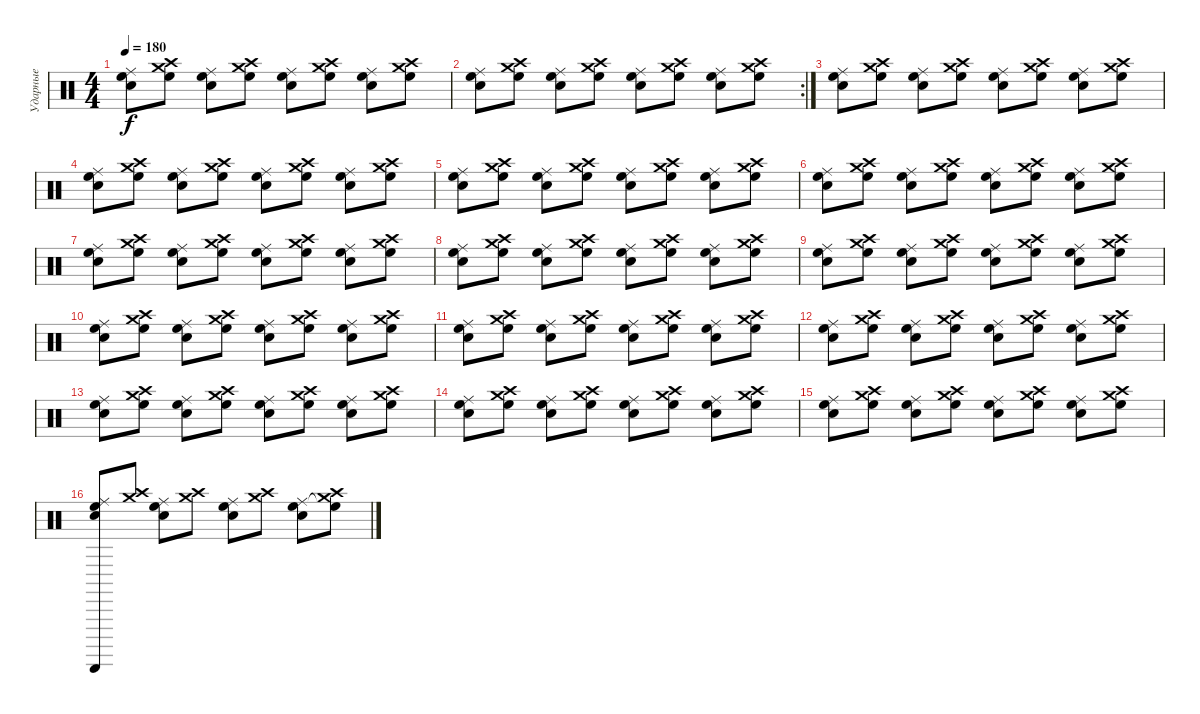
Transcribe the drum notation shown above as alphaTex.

\track ("Ударные" "Ударные") {instrument percussion}
\staff {score}
\articulation defaults
\ts (4 4)
\tempo 180
\clef neutral
\ks c
("High Floor Tom (hit)" "Ride (middle)" "Snare (hit) 2").8{dy f} ("High Floor Tom (hit)" "Crash high (hit)" "Crash medium (hit)").8 ("High Floor Tom (hit)" "Ride (middle)" "Snare (hit) 2").8 ("High Floor Tom (hit)" "Crash high (hit)" "Crash medium (hit)").8 ("High Floor Tom (hit)" "Ride (middle)" "Snare (hit) 2").8 ("High Floor Tom (hit)" "Crash high (hit)" "Crash medium (hit)").8 ("High Floor Tom (hit)" "Ride (middle)" "Snare (hit) 2").8 ("High Floor Tom (hit)" "Crash high (hit)" "Crash medium (hit)").8 |
\rc 2
("High Floor Tom (hit)" "Ride (middle)" "Snare (hit) 2").8 ("High Floor Tom (hit)" "Crash high (hit)" "Crash medium (hit)").8 ("High Floor Tom (hit)" "Ride (middle)" "Snare (hit) 2").8 ("High Floor Tom (hit)" "Crash high (hit)" "Crash medium (hit)").8 ("High Floor Tom (hit)" "Ride (middle)" "Snare (hit) 2").8 ("High Floor Tom (hit)" "Crash high (hit)" "Crash medium (hit)").8 ("High Floor Tom (hit)" "Ride (middle)" "Snare (hit) 2").8 ("High Floor Tom (hit)" "Crash high (hit)" "Crash medium (hit)").8 |
("High Floor Tom (hit)" "Ride (middle)" "Snare (hit) 2").8 ("High Floor Tom (hit)" "Crash high (hit)" "Crash medium (hit)").8 ("High Floor Tom (hit)" "Ride (middle)" "Snare (hit) 2").8 ("High Floor Tom (hit)" "Crash high (hit)" "Crash medium (hit)").8 ("High Floor Tom (hit)" "Ride (middle)" "Snare (hit) 2").8 ("High Floor Tom (hit)" "Crash high (hit)" "Crash medium (hit)").8 ("High Floor Tom (hit)" "Ride (middle)" "Snare (hit) 2").8 ("High Floor Tom (hit)" "Crash high (hit)" "Crash medium (hit)").8 |
("High Floor Tom (hit)" "Ride (middle)" "Snare (hit) 2").8 ("High Floor Tom (hit)" "Crash high (hit)" "Crash medium (hit)").8 ("High Floor Tom (hit)" "Ride (middle)" "Snare (hit) 2").8 ("High Floor Tom (hit)" "Crash high (hit)" "Crash medium (hit)").8 ("High Floor Tom (hit)" "Ride (middle)" "Snare (hit) 2").8 ("High Floor Tom (hit)" "Crash high (hit)" "Crash medium (hit)").8 ("High Floor Tom (hit)" "Ride (middle)" "Snare (hit) 2").8 ("High Floor Tom (hit)" "Crash high (hit)" "Crash medium (hit)").8 |
("High Floor Tom (hit)" "Ride (middle)" "Snare (hit) 2").8 ("High Floor Tom (hit)" "Crash high (hit)" "Crash medium (hit)").8 ("High Floor Tom (hit)" "Ride (middle)" "Snare (hit) 2").8 ("High Floor Tom (hit)" "Crash high (hit)" "Crash medium (hit)").8 ("High Floor Tom (hit)" "Ride (middle)" "Snare (hit) 2").8 ("High Floor Tom (hit)" "Crash high (hit)" "Crash medium (hit)").8 ("High Floor Tom (hit)" "Ride (middle)" "Snare (hit) 2").8 ("High Floor Tom (hit)" "Crash high (hit)" "Crash medium (hit)").8 |
("High Floor Tom (hit)" "Ride (middle)" "Snare (hit) 2").8 ("High Floor Tom (hit)" "Crash high (hit)" "Crash medium (hit)").8 ("High Floor Tom (hit)" "Ride (middle)" "Snare (hit) 2").8 ("High Floor Tom (hit)" "Crash high (hit)" "Crash medium (hit)").8 ("High Floor Tom (hit)" "Ride (middle)" "Snare (hit) 2").8 ("High Floor Tom (hit)" "Crash high (hit)" "Crash medium (hit)").8 ("High Floor Tom (hit)" "Ride (middle)" "Snare (hit) 2").8 ("High Floor Tom (hit)" "Crash high (hit)" "Crash medium (hit)").8 |
("High Floor Tom (hit)" "Ride (middle)" "Snare (hit) 2").8 ("High Floor Tom (hit)" "Crash high (hit)" "Crash medium (hit)").8 ("High Floor Tom (hit)" "Ride (middle)" "Snare (hit) 2").8 ("High Floor Tom (hit)" "Crash high (hit)" "Crash medium (hit)").8 ("High Floor Tom (hit)" "Ride (middle)" "Snare (hit) 2").8 ("High Floor Tom (hit)" "Crash high (hit)" "Crash medium (hit)").8 ("High Floor Tom (hit)" "Ride (middle)" "Snare (hit) 2").8 ("High Floor Tom (hit)" "Crash high (hit)" "Crash medium (hit)").8 |
("High Floor Tom (hit)" "Ride (middle)" "Snare (hit) 2").8 ("High Floor Tom (hit)" "Crash high (hit)" "Crash medium (hit)").8 ("High Floor Tom (hit)" "Ride (middle)" "Snare (hit) 2").8 ("High Floor Tom (hit)" "Crash high (hit)" "Crash medium (hit)").8 ("High Floor Tom (hit)" "Ride (middle)" "Snare (hit) 2").8 ("High Floor Tom (hit)" "Crash high (hit)" "Crash medium (hit)").8 ("High Floor Tom (hit)" "Ride (middle)" "Snare (hit) 2").8 ("High Floor Tom (hit)" "Crash high (hit)" "Crash medium (hit)").8 |
("High Floor Tom (hit)" "Ride (middle)" "Snare (hit) 2").8 ("High Floor Tom (hit)" "Crash high (hit)" "Crash medium (hit)").8 ("High Floor Tom (hit)" "Ride (middle)" "Snare (hit) 2").8 ("High Floor Tom (hit)" "Crash high (hit)" "Crash medium (hit)").8 ("High Floor Tom (hit)" "Ride (middle)" "Snare (hit) 2").8 ("High Floor Tom (hit)" "Crash high (hit)" "Crash medium (hit)").8 ("High Floor Tom (hit)" "Ride (middle)" "Snare (hit) 2").8 ("High Floor Tom (hit)" "Crash high (hit)" "Crash medium (hit)").8 |
("High Floor Tom (hit)" "Ride (middle)" "Snare (hit) 2").8 ("High Floor Tom (hit)" "Crash high (hit)" "Crash medium (hit)").8 ("High Floor Tom (hit)" "Ride (middle)" "Snare (hit) 2").8 ("High Floor Tom (hit)" "Crash high (hit)" "Crash medium (hit)").8 ("High Floor Tom (hit)" "Ride (middle)" "Snare (hit) 2").8 ("High Floor Tom (hit)" "Crash high (hit)" "Crash medium (hit)").8 ("High Floor Tom (hit)" "Ride (middle)" "Snare (hit) 2").8 ("High Floor Tom (hit)" "Crash high (hit)" "Crash medium (hit)").8 |
("High Floor Tom (hit)" "Ride (middle)" "Snare (hit) 2").8 ("High Floor Tom (hit)" "Crash high (hit)" "Crash medium (hit)").8 ("High Floor Tom (hit)" "Ride (middle)" "Snare (hit) 2").8 ("High Floor Tom (hit)" "Crash high (hit)" "Crash medium (hit)").8 ("High Floor Tom (hit)" "Ride (middle)" "Snare (hit) 2").8 ("High Floor Tom (hit)" "Crash high (hit)" "Crash medium (hit)").8 ("High Floor Tom (hit)" "Ride (middle)" "Snare (hit) 2").8 ("High Floor Tom (hit)" "Crash high (hit)" "Crash medium (hit)").8 |
("High Floor Tom (hit)" "Ride (middle)" "Snare (hit) 2").8 ("High Floor Tom (hit)" "Crash high (hit)" "Crash medium (hit)").8 ("High Floor Tom (hit)" "Ride (middle)" "Snare (hit) 2").8 ("High Floor Tom (hit)" "Crash high (hit)" "Crash medium (hit)").8 ("High Floor Tom (hit)" "Ride (middle)" "Snare (hit) 2").8 ("High Floor Tom (hit)" "Crash high (hit)" "Crash medium (hit)").8 ("High Floor Tom (hit)" "Ride (middle)" "Snare (hit) 2").8 ("High Floor Tom (hit)" "Crash high (hit)" "Crash medium (hit)").8 |
("High Floor Tom (hit)" "Ride (middle)" "Snare (hit) 2").8 ("High Floor Tom (hit)" "Crash high (hit)" "Crash medium (hit)").8 ("High Floor Tom (hit)" "Ride (middle)" "Snare (hit) 2").8 ("High Floor Tom (hit)" "Crash high (hit)" "Crash medium (hit)").8 ("High Floor Tom (hit)" "Ride (middle)" "Snare (hit) 2").8 ("High Floor Tom (hit)" "Crash high (hit)" "Crash medium (hit)").8 ("High Floor Tom (hit)" "Ride (middle)" "Snare (hit) 2").8 ("High Floor Tom (hit)" "Crash high (hit)" "Crash medium (hit)").8 |
("High Floor Tom (hit)" "Ride (middle)" "Snare (hit) 2").8 ("High Floor Tom (hit)" "Crash high (hit)" "Crash medium (hit)").8 ("High Floor Tom (hit)" "Ride (middle)" "Snare (hit) 2").8 ("High Floor Tom (hit)" "Crash high (hit)" "Crash medium (hit)").8 ("High Floor Tom (hit)" "Ride (middle)" "Snare (hit) 2").8 ("High Floor Tom (hit)" "Crash high (hit)" "Crash medium (hit)").8 ("High Floor Tom (hit)" "Ride (middle)" "Snare (hit) 2").8 ("High Floor Tom (hit)" "Crash high (hit)" "Crash medium (hit)").8 |
("High Floor Tom (hit)" "Ride (middle)" "Snare (hit) 2").8 ("High Floor Tom (hit)" "Crash high (hit)" "Crash medium (hit)").8 ("High Floor Tom (hit)" "Ride (middle)" "Snare (hit) 2").8 ("High Floor Tom (hit)" "Crash high (hit)" "Crash medium (hit)").8 ("High Floor Tom (hit)" "Ride (middle)" "Snare (hit) 2").8 ("High Floor Tom (hit)" "Crash high (hit)" "Crash medium (hit)").8 ("High Floor Tom (hit)" "Ride (middle)" "Snare (hit) 2").8 ("High Floor Tom (hit)" "Crash high (hit)" "Crash medium (hit)").8 |
("Guiro (scrap-return)" "High Floor Tom (hit)" "Ride (middle)" "Snare (hit) 2").8 ("Crash high (hit)" "Crash medium (hit)").8 ("High Floor Tom (hit)" "Ride (middle)" "Snare (hit) 2").8 ("Crash high (hit)" "Crash medium (hit)").8 ("High Floor Tom (hit)" "Ride (middle)" "Snare (hit) 2").8 ("Crash high (hit)" "Crash medium (hit)").8 ("High Floor Tom (hit)" "Ride (middle)" "Snare (hit) 2").8 ("High Floor Tom (hit)"{t} "Crash high (hit)" "Crash medium (hit)").8
